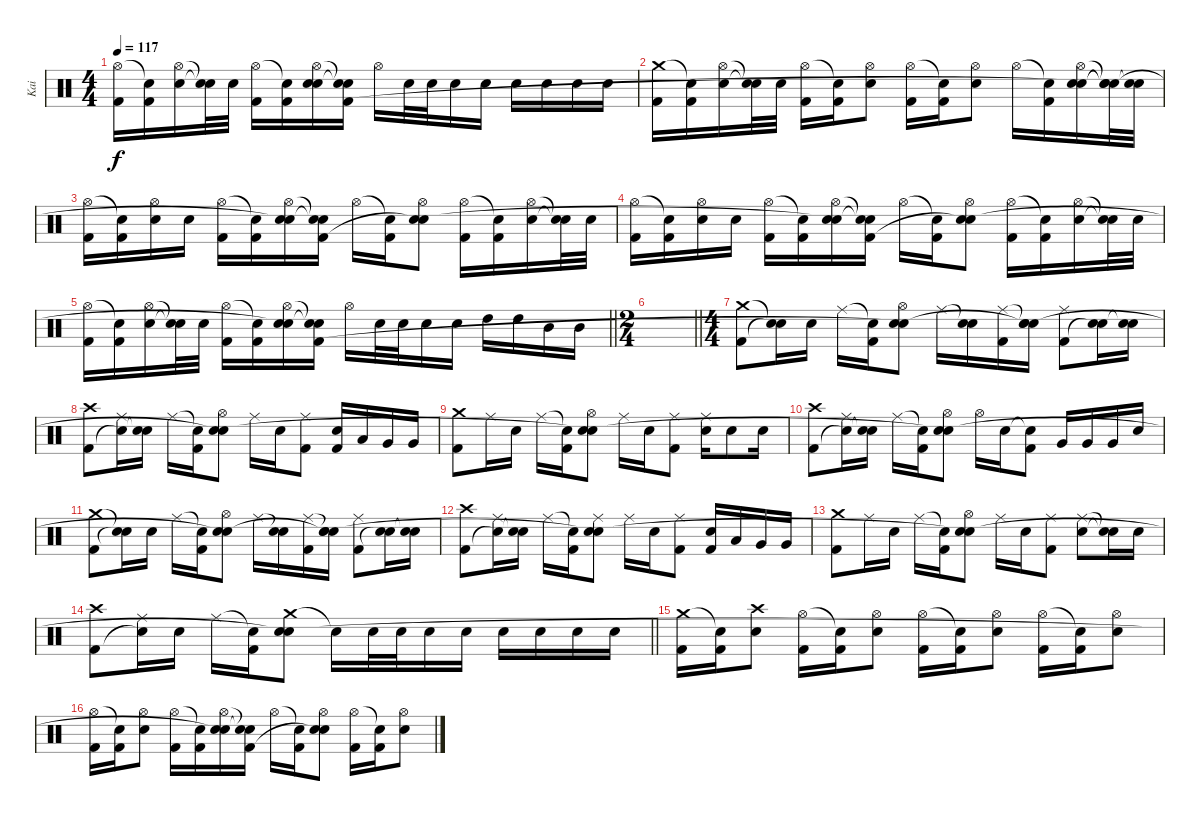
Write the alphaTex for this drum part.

\track ("Kai" "Kai") {instrument percussion}
\staff {score}
\articulation defaults
\ts (4 4)
\tempo 117
\clef neutral
\ks c
("Hi-Hat (open)" "Kick (hit) 2").16{dy f} ("Snare (hit)"{t} "Kick (hit) 2").16 ("Hi-Hat (open)" "Snare (hit) 2").16 ("Snare (hit)"{t} "Snare (hit)"{t}).32 "Snare (hit) 2".32 ("Hi-Hat (open)" "Kick (hit) 2").16 ("Snare (hit)"{t} "Kick (hit) 2").16 ("Hi-Hat (open)" "Snare (hit) 2" "Snare (hit)"{t}).16 ("Snare (hit)"{t} "Snare (hit)"{t} "Kick (hit) 2").16 "Hi-Hat (open)".16 "Snare (hit) 2".32 "Snare (hit) 2".32 "Snare (hit) 2".16 "Snare (hit) 2".16 "Snare (hit) 2".16 "Snare (hit) 2".16 "Snare (hit) 2".16 "Snare (hit) 2".16 |
("Crash medium (hit)" "Kick (hit) 2").16 ("Snare (hit)"{t} "Kick (hit) 2").16 ("Hi-Hat (open)" "Snare (hit) 2").16 ("Snare (hit)"{t} "Snare (hit)"{t}).32 "Snare (hit) 2".32 ("Hi-Hat (open)" "Kick (hit) 2").16 ("Snare (hit)"{t} "Kick (hit) 2").16 ("Hi-Hat (open)" "Snare (hit) 2").8 ("Hi-Hat (open)" "Kick (hit) 2").16 ("Snare (hit)"{t} "Kick (hit) 2").16 ("Hi-Hat (open)" "Snare (hit) 2").8 "Hi-Hat (open)".16 ("Snare (hit)"{t} "Kick (hit) 2").16 ("Hi-Hat (open)" "Snare (hit) 2" "Snare (hit)"{t}).16 ("Snare (hit)"{t} "Snare (hit)"{t} "Snare (hit)"{t}).32 ("Snare (hit) 2" "Snare (hit)"{t}).32 |
("Hi-Hat (open)" "Kick (hit) 2").16 ("Snare (hit)"{t} "Kick (hit) 2").16 ("Hi-Hat (open)" "Snare (hit) 2").16 "Snare (hit) 2".16 ("Hi-Hat (open)" "Kick (hit) 2").16 ("Snare (hit)"{t} "Kick (hit) 2").16 ("Hi-Hat (open)" "Snare (hit) 2" "Snare (hit)"{t}).16 ("Snare (hit)"{t} "Snare (hit)"{t} "Kick (hit) 2").16 "Hi-Hat (open)".16 ("Snare (hit)"{t} "Kick (hit) 2").16 ("Hi-Hat (open)" "Snare (hit) 2" "Snare (hit)"{t}).8 ("Hi-Hat (open)" "Kick (hit) 2").16 ("Snare (hit)"{t} "Kick (hit) 2").16 ("Hi-Hat (open)" "Snare (hit) 2").16 ("Snare (hit)"{t} "Snare (hit)"{t}).32 "Snare (hit) 2".32 |
("Hi-Hat (open)" "Kick (hit) 2").16 ("Snare (hit)"{t} "Kick (hit) 2").16 ("Hi-Hat (open)" "Snare (hit) 2").16 "Snare (hit) 2".16 ("Hi-Hat (open)" "Kick (hit) 2").16 ("Snare (hit)"{t} "Kick (hit) 2").16 ("Hi-Hat (open)" "Snare (hit) 2" "Snare (hit)"{t}).16 ("Snare (hit)"{t} "Snare (hit)"{t} "Kick (hit) 2").16 "Hi-Hat (open)".16 ("Snare (hit)"{t} "Kick (hit) 2").16 ("Hi-Hat (open)" "Snare (hit) 2" "Snare (hit)"{t}).8 ("Hi-Hat (open)" "Kick (hit) 2").16 ("Snare (hit)"{t} "Kick (hit) 2").16 ("Hi-Hat (open)" "Snare (hit) 2").16 ("Snare (hit)"{t} "Snare (hit)"{t}).32 "Snare (hit) 2".32 |
\barLineRight lightlight
("Hi-Hat (open)" "Kick (hit) 2").16 ("Snare (hit)"{t} "Kick (hit) 2").16 ("Hi-Hat (open)" "Snare (hit) 2").16 ("Snare (hit)"{t} "Snare (hit)"{t}).32 "Snare (hit) 2".32 ("Hi-Hat (open)" "Kick (hit) 2").16 ("Snare (hit)"{t} "Kick (hit) 2").16 ("Hi-Hat (open)" "Snare (hit) 2" "Snare (hit)"{t}).16 ("Snare (hit)"{t} "Snare (hit)"{t} "Kick (hit) 2").16 "Hi-Hat (open)".16 "Snare (hit) 2".32 "Snare (hit) 2".32 "Snare (hit) 2".16 "Snare (hit) 2".16 "High Tom (hit)".16 "High Tom (hit)".16 "Mid Tom (hit)".16 "Mid Tom (hit)".16 |
\ts (2 4)
\barLineRight lightlight
|
\ts (4 4)
("Crash medium (hit)" "Kick (hit) 2").8 ("Snare (hit)"{t} "Snare (hit)"{t}).16 "Snare (hit) 2".16 "Ride (middle)".16 ("Snare (hit)"{t} "Kick (hit) 2").16 ("Hi-Hat (open)" "Snare (hit) 2" "Snare (hit)"{t}).8 "Ride (middle)".16 ("Snare (hit)"{t} "Snare (hit) 2").16 ("Ride (middle)" "Kick (hit) 2").16 ("Snare (hit)"{t} "Snare (hit) 2" "Snare (hit)"{t}).16 ("Ride (middle)" "Kick (hit) 2").8 ("Snare (hit) 2" "Snare (hit)"{t}).16 ("Snare (hit) 2" "Snare (hit)"{t}).16 |
("Crash high (hit)" "Kick (hit) 2").8 ("Ride (middle)" "Snare (hit)"{t}).16 ("Snare (hit) 2" "Snare (hit)"{t}).16 "Ride (middle)".16 ("Snare (hit)"{t} "Kick (hit) 2").16 ("Hi-Hat (open)" "Snare (hit) 2" "Snare (hit)"{t}).8 "Ride (middle)".16 "Snare (hit) 2".16 ("Ride (middle)" "Kick (hit) 2").8 ("Snare (hit) 2" "Kick (hit) 2").16 "Low Tom (hit)".16 "Very Low Tom (hit)".16 "Very Low Tom (hit)".16 |
("Crash medium (hit)" "Kick (hit) 2").8 "Ride (middle)".16 "Snare (hit) 2".16 "Ride (middle)".16 ("Snare (hit)"{t} "Kick (hit) 2").16 ("Hi-Hat (open)" "Snare (hit) 2" "Snare (hit)"{t}).8 "Ride (middle)".16 "Snare (hit) 2".16 ("Ride (middle)" "Kick (hit) 2").8 ("Ride (middle)" "Snare (hit) 2").16 "Snare (hit) 2".8 "Snare (hit) 2".16 |
("Crash high (hit)" "Kick (hit) 2").8 ("Ride (middle)" "Snare (hit)"{t}).16 ("Snare (hit) 2" "Snare (hit)"{t}).16 "Ride (middle)".16 ("Snare (hit)"{t} "Kick (hit) 2").16 ("Hi-Hat (open)" "Snare (hit) 2" "Snare (hit)"{t}).8 "Hi-Hat (open)".16 "Snare (hit) 2".16 ("Snare (hit)"{t} "Kick (hit) 2").8 "Very Low Tom (hit)".16 "Very Low Tom (hit)".16 "Very Low Tom (hit)".16 "Snare (hit) 2".16 |
("Crash medium (hit)" "Kick (hit) 2").8 ("Snare (hit)"{t} "Snare (hit)"{t}).16 "Snare (hit) 2".16 "Ride (middle)".16 ("Snare (hit)"{t} "Kick (hit) 2").16 ("Hi-Hat (open)" "Snare (hit) 2" "Snare (hit)"{t}).8 "Ride (middle)".16 ("Snare (hit)"{t} "Snare (hit) 2").16 ("Ride (middle)" "Kick (hit) 2").16 ("Snare (hit)"{t} "Snare (hit) 2" "Snare (hit)"{t}).16 ("Ride (middle)" "Kick (hit) 2").8 ("Snare (hit) 2" "Snare (hit)"{t}).16 ("Snare (hit) 2" "Snare (hit)"{t}).16 |
("Crash high (hit)" "Kick (hit) 2").8 ("Ride (middle)" "Snare (hit)"{t}).16 ("Snare (hit) 2" "Snare (hit)"{t}).16 "Ride (middle)".16 ("Snare (hit)"{t} "Kick (hit) 2").16 ("Ride (middle)" "Snare (hit) 2" "Snare (hit)"{t}).8 "Ride (middle)".16 "Snare (hit) 2".16 ("Ride (middle)" "Kick (hit) 2").8 ("Snare (hit) 2" "Kick (hit) 2").16 "Low Tom (hit)".16 "Very Low Tom (hit)".16 "Very Low Tom (hit)".16 |
("Crash medium (hit)" "Kick (hit) 2").8 "Ride (middle)".16 "Snare (hit) 2".16 "Ride (middle)".16 ("Snare (hit)"{t} "Kick (hit) 2").16 ("Hi-Hat (open)" "Snare (hit) 2" "Snare (hit)"{t}).8 "Ride (middle)".16 "Snare (hit) 2".16 ("Ride (middle)" "Kick (hit) 2").8 ("Ride (middle)" "Snare (hit) 2").8 ("Snare (hit)"{t} "Snare (hit) 2"{t}).16 "Snare (hit) 2".16 |
\barLineRight lightlight
("Crash high (hit)" "Kick (hit) 2").8 ("Ride (middle)" "Snare (hit)"{t}).16 "Snare (hit) 2".16 "Ride (middle)".16 ("Snare (hit)"{t} "Kick (hit) 2").16 ("Crash medium (hit)" "Snare (hit) 2" "Snare (hit)"{t}).8 "Snare (hit)"{t}.16 "Snare (hit) 2".32 "Snare (hit) 2".32 "Snare (hit) 2".16 "Snare (hit) 2".16 "Snare (hit) 2".16 "Snare (hit) 2".16 "Snare (hit) 2".16 "Snare (hit) 2".16 |
("Crash medium (hit)" "Kick (hit) 2").16 ("Snare (hit)"{t} "Kick (hit) 2").16 ("Crash high (hit)" "Snare (hit) 2").8 ("Hi-Hat (open)" "Kick (hit) 2").16 ("Snare (hit)"{t} "Kick (hit) 2").16 ("Hi-Hat (open)" "Snare (hit) 2").8 ("Hi-Hat (open)" "Kick (hit) 2").16 ("Snare (hit)"{t} "Kick (hit) 2").16 ("Hi-Hat (open)" "Snare (hit) 2").8 ("Hi-Hat (open)" "Kick (hit) 2").16 ("Snare (hit)"{t} "Kick (hit) 2").16 ("Hi-Hat (open)" "Snare (hit) 2").8 |
("Hi-Hat (open)" "Kick (hit) 2").16 ("Snare (hit)"{t} "Kick (hit) 2").16 ("Hi-Hat (open)" "Snare (hit) 2").8 ("Hi-Hat (open)" "Kick (hit) 2").16 ("Snare (hit)"{t} "Kick (hit) 2").16 ("Hi-Hat (open)" "Snare (hit) 2" "Snare (hit)"{t}).16 ("Snare (hit)"{t} "Snare (hit)"{t} "Kick (hit) 2").16 "Hi-Hat (open)".16 ("Snare (hit)"{t} "Kick (hit) 2").16 ("Hi-Hat (open)" "Snare (hit) 2" "Snare (hit)"{t}).8 ("Hi-Hat (open)" "Kick (hit) 2").16 ("Snare (hit)"{t} "Kick (hit) 2").16 ("Hi-Hat (open)" "Snare (hit) 2").8
